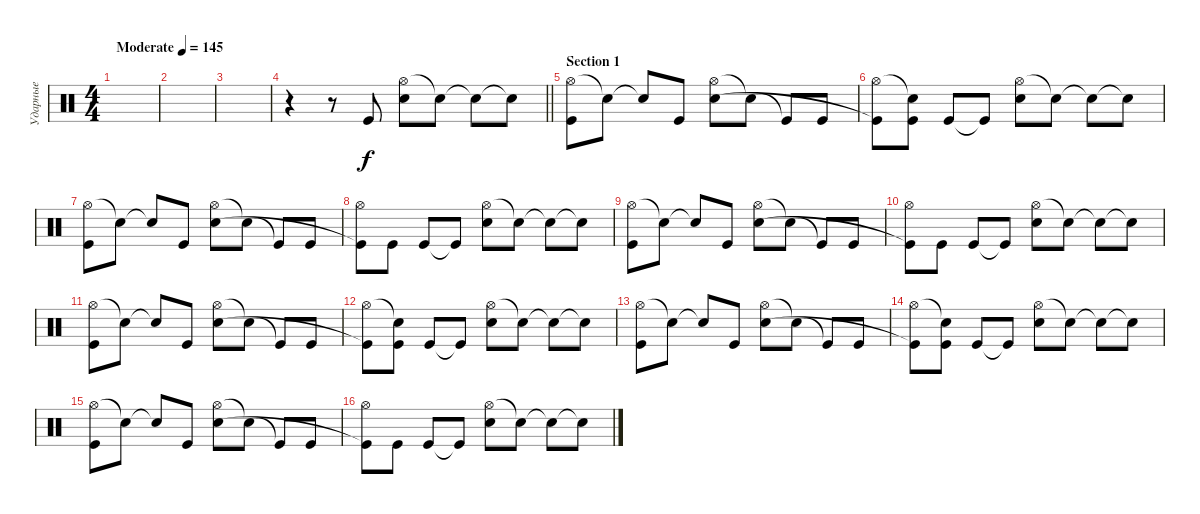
\track ("Ударные" "Ударные") {instrument percussion}
\staff {score}
\articulation defaults
\ts (4 4)
\tempo (145 "Moderate")
\clef neutral
\ks c
|
|
|
\barLineRight lightlight
r.4 r.8 "Kick (hit)".8 ("Hi-Hat (open)" "Snare (hit) 2").8 "Snare (hit)"{t}.8 "Snare (hit)"{t}.8 "Snare (hit)"{t}.8 |
\section ("" "Section 1")
("Hi-Hat (open)" "Kick (hit)").8 "Snare (hit)"{t}.8 "Snare (hit)"{t}.8 "Kick (hit)".8 ("Hi-Hat (open)" "Snare (hit) 2").8 "Snare (hit)"{t}.8 "Kick (hit)"{t}.8 "Kick (hit)".8 |
("Hi-Hat (open)" "Kick (hit)"{t}).8 ("Snare (hit)"{t} "Kick (hit)").8 "Kick (hit)".8 "Kick (hit)"{t}.8 ("Hi-Hat (open)" "Snare (hit) 2").8 "Snare (hit)"{t}.8 "Snare (hit)"{t}.8 "Snare (hit)"{t}.8 |
("Hi-Hat (open)" "Kick (hit)").8 "Snare (hit)"{t}.8 "Snare (hit)"{t}.8 "Kick (hit)".8 ("Hi-Hat (open)" "Snare (hit) 2").8 "Snare (hit)"{t}.8 "Kick (hit)"{t}.8 "Kick (hit)".8 |
("Hi-Hat (open)" "Kick (hit)"{t}).8 "Kick (hit)".8 "Kick (hit)".8 "Kick (hit)"{t}.8 ("Hi-Hat (open)" "Snare (hit) 2").8 "Snare (hit)"{t}.8 "Snare (hit)"{t}.8 "Snare (hit)"{t}.8 |
("Hi-Hat (open)" "Kick (hit)").8 "Snare (hit)"{t}.8 "Snare (hit)"{t}.8 "Kick (hit)".8 ("Hi-Hat (open)" "Snare (hit) 2").8 "Snare (hit)"{t}.8 "Kick (hit)"{t}.8 "Kick (hit)".8 |
("Hi-Hat (open)" "Kick (hit)"{t}).8 "Kick (hit)".8 "Kick (hit)".8 "Kick (hit)"{t}.8 ("Hi-Hat (open)" "Snare (hit) 2").8 "Snare (hit)"{t}.8 "Snare (hit)"{t}.8 "Snare (hit)"{t}.8 |
("Hi-Hat (open)" "Kick (hit)").8 "Snare (hit)"{t}.8 "Snare (hit)"{t}.8 "Kick (hit)".8 ("Hi-Hat (open)" "Snare (hit) 2").8 "Snare (hit)"{t}.8 "Kick (hit)"{t}.8 "Kick (hit)".8 |
("Hi-Hat (open)" "Kick (hit)"{t}).8 ("Snare (hit)"{t} "Kick (hit)").8 "Kick (hit)".8 "Kick (hit)"{t}.8 ("Hi-Hat (open)" "Snare (hit) 2").8 "Snare (hit)"{t}.8 "Snare (hit)"{t}.8 "Snare (hit)"{t}.8 |
("Hi-Hat (open)" "Kick (hit)").8 "Snare (hit)"{t}.8 "Snare (hit)"{t}.8 "Kick (hit)".8 ("Hi-Hat (open)" "Snare (hit) 2").8 "Snare (hit)"{t}.8 "Kick (hit)"{t}.8 "Kick (hit)".8 |
("Hi-Hat (open)" "Kick (hit)"{t}).8 ("Snare (hit)"{t} "Kick (hit)").8 "Kick (hit)".8 "Kick (hit)"{t}.8 ("Hi-Hat (open)" "Snare (hit) 2").8 "Snare (hit)"{t}.8 "Snare (hit)"{t}.8 "Snare (hit)"{t}.8 |
("Hi-Hat (open)" "Kick (hit)").8 "Snare (hit)"{t}.8 "Snare (hit)"{t}.8 "Kick (hit)".8 ("Hi-Hat (open)" "Snare (hit) 2").8 "Snare (hit)"{t}.8 "Kick (hit)"{t}.8 "Kick (hit)".8 |
("Hi-Hat (open)" "Kick (hit)"{t}).8 "Kick (hit)".8 "Kick (hit)".8 "Kick (hit)"{t}.8 ("Hi-Hat (open)" "Snare (hit) 2").8 "Snare (hit)"{t}.8 "Snare (hit)"{t}.8 "Snare (hit)"{t}.8
